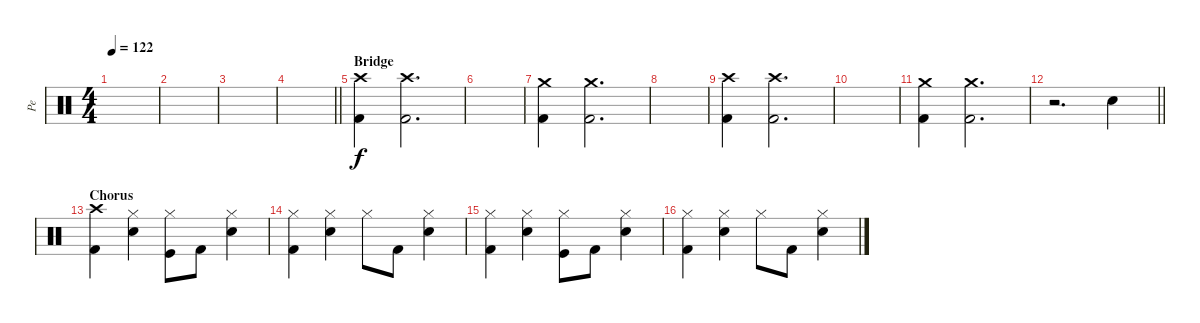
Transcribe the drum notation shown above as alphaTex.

\track ("Pe" "Pe") {instrument percussion}
\staff {score}
\articulation defaults
\ts (4 4)
\tempo 122
\clef neutral
\ks c
|
|
|
\barLineRight lightlight
|
\section ("" "Bridge")
("Kick (hit) 2" "Crash high (hit)").4{volume 13} ("Kick (hit) 2" "Crash high (hit)").2{d} |
|
("Kick (hit) 2" "Crash medium (hit)").4 ("Kick (hit) 2" "Crash medium (hit)").2{d} |
|
("Kick (hit) 2" "Crash high (hit)").4 ("Kick (hit) 2" "Crash high (hit)").2{d} |
|
("Kick (hit) 2" "Crash medium (hit)").4 ("Kick (hit) 2" "Crash medium (hit)").2{d} |
\barLineRight lightlight
r.2{d} "Electric Snare (hit)".4 |
\section ("" "Chorus")
("Kick (hit) 2" "Crash high (hit)").4 ("Electric Snare (hit)" "Hi-Hat (closed)").4 ("Kick (hit)" "Hi-Hat (closed)").8 "Kick (hit) 2".8 ("Electric Snare (hit)" "Hi-Hat (closed)").4 |
("Kick (hit) 2" "Hi-Hat (closed)").4 ("Electric Snare (hit)" "Hi-Hat (closed)").4 "Hi-Hat (closed)".8 "Kick (hit) 2".8 ("Electric Snare (hit)" "Hi-Hat (closed)").4 |
("Kick (hit) 2" "Hi-Hat (closed)").4 ("Electric Snare (hit)" "Hi-Hat (closed)").4 ("Kick (hit)" "Hi-Hat (closed)").8 "Kick (hit) 2".8 ("Electric Snare (hit)" "Hi-Hat (closed)").4 |
("Kick (hit) 2" "Hi-Hat (closed)").4 ("Electric Snare (hit)" "Hi-Hat (closed)").4 "Hi-Hat (closed)".8 "Kick (hit) 2".8 ("Electric Snare (hit)" "Hi-Hat (closed)").4
